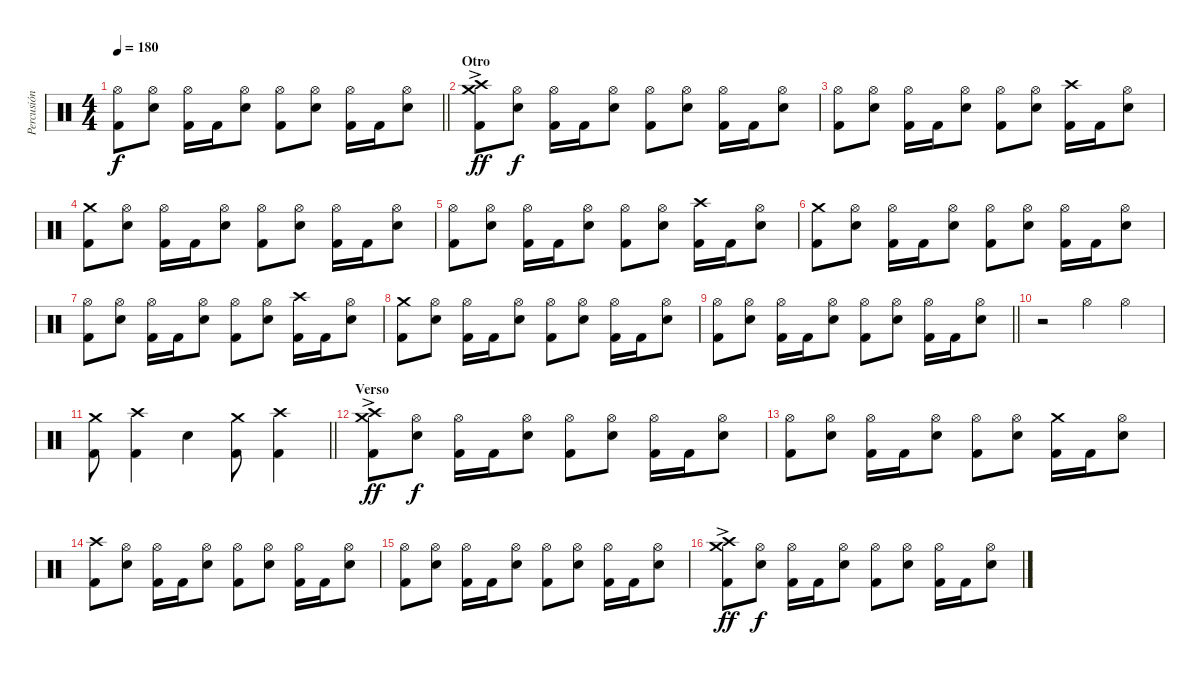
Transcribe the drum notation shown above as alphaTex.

\track ("Percusión" "Percusión") {instrument percussion}
\staff {score}
\articulation defaults
\ts (4 4)
\tempo 180
\clef neutral
\barLineRight lightlight
\ks c
("Hi-Hat (open)" "Kick (hit) 2").8{dy f} ("Hi-Hat (open)" "Snare (hit) 2").8 ("Hi-Hat (open)" "Kick (hit) 2").16 "Kick (hit) 2".16 ("Hi-Hat (open)" "Snare (hit) 2").8 ("Hi-Hat (open)" "Kick (hit) 2").8 ("Hi-Hat (open)" "Snare (hit) 2").8 ("Hi-Hat (open)" "Kick (hit) 2").16 "Kick (hit) 2".16 ("Hi-Hat (open)" "Snare (hit) 2").8 |
\section ("" "Otro")
("Crash medium (hit)"{ac} "Crash high (hit)" "Kick (hit) 2").8{dy ff} ("Hi-Hat (open)" "Snare (hit) 2").8{dy f} ("Hi-Hat (open)" "Kick (hit) 2").16 "Kick (hit) 2".16 ("Hi-Hat (open)" "Snare (hit) 2").8 ("Hi-Hat (open)" "Kick (hit) 2").8 ("Hi-Hat (open)" "Snare (hit) 2").8 ("Hi-Hat (open)" "Kick (hit) 2").16 "Kick (hit) 2".16 ("Hi-Hat (open)" "Snare (hit) 2").8 |
("Hi-Hat (open)" "Kick (hit) 2").8 ("Hi-Hat (open)" "Snare (hit) 2").8 ("Hi-Hat (open)" "Kick (hit) 2").16 "Kick (hit) 2".16 ("Hi-Hat (open)" "Snare (hit) 2").8 ("Hi-Hat (open)" "Kick (hit) 2").8 ("Hi-Hat (open)" "Snare (hit) 2").8 ("Crash high (hit)" "Kick (hit) 2").16 "Kick (hit) 2".16 ("Hi-Hat (open)" "Snare (hit) 2").8 |
("Crash medium (hit)" "Kick (hit) 2").8 ("Hi-Hat (open)" "Snare (hit) 2").8 ("Hi-Hat (open)" "Kick (hit) 2").16 "Kick (hit) 2".16 ("Hi-Hat (open)" "Snare (hit) 2").8 ("Hi-Hat (open)" "Kick (hit) 2").8 ("Hi-Hat (open)" "Snare (hit) 2").8 ("Hi-Hat (open)" "Kick (hit) 2").16 "Kick (hit) 2".16 ("Hi-Hat (open)" "Snare (hit) 2").8 |
("Hi-Hat (open)" "Kick (hit) 2").8 ("Hi-Hat (open)" "Snare (hit) 2").8 ("Hi-Hat (open)" "Kick (hit) 2").16 "Kick (hit) 2".16 ("Hi-Hat (open)" "Snare (hit) 2").8 ("Hi-Hat (open)" "Kick (hit) 2").8 ("Hi-Hat (open)" "Snare (hit) 2").8 ("Crash high (hit)" "Kick (hit) 2").16 "Kick (hit) 2".16 ("Hi-Hat (open)" "Snare (hit) 2").8 |
("Crash medium (hit)" "Kick (hit) 2").8 ("Hi-Hat (open)" "Snare (hit) 2").8 ("Hi-Hat (open)" "Kick (hit) 2").16 "Kick (hit) 2".16 ("Hi-Hat (open)" "Snare (hit) 2").8 ("Hi-Hat (open)" "Kick (hit) 2").8 ("Hi-Hat (open)" "Snare (hit) 2").8 ("Hi-Hat (open)" "Kick (hit) 2").16 "Kick (hit) 2".16 ("Hi-Hat (open)" "Snare (hit) 2").8 |
("Hi-Hat (open)" "Kick (hit) 2").8 ("Hi-Hat (open)" "Snare (hit) 2").8 ("Hi-Hat (open)" "Kick (hit) 2").16 "Kick (hit) 2".16 ("Hi-Hat (open)" "Snare (hit) 2").8 ("Hi-Hat (open)" "Kick (hit) 2").8 ("Hi-Hat (open)" "Snare (hit) 2").8 ("Crash high (hit)" "Kick (hit) 2").16 "Kick (hit) 2".16 ("Hi-Hat (open)" "Snare (hit) 2").8 |
("Crash medium (hit)" "Kick (hit) 2").8 ("Hi-Hat (open)" "Snare (hit) 2").8 ("Hi-Hat (open)" "Kick (hit) 2").16 "Kick (hit) 2".16 ("Hi-Hat (open)" "Snare (hit) 2").8 ("Hi-Hat (open)" "Kick (hit) 2").8 ("Hi-Hat (open)" "Snare (hit) 2").8 ("Hi-Hat (open)" "Kick (hit) 2").16 "Kick (hit) 2".16 ("Hi-Hat (open)" "Snare (hit) 2").8 |
\barLineRight lightlight
("Hi-Hat (open)" "Kick (hit) 2").8 ("Hi-Hat (open)" "Snare (hit) 2").8 ("Hi-Hat (open)" "Kick (hit) 2").16 "Kick (hit) 2".16 ("Hi-Hat (open)" "Snare (hit) 2").8 ("Hi-Hat (open)" "Kick (hit) 2").8 ("Hi-Hat (open)" "Snare (hit) 2").8 ("Hi-Hat (open)" "Kick (hit) 2").16 "Kick (hit) 2".16 ("Hi-Hat (open)" "Snare (hit) 2").8 |
r.2 "Hi-Hat (open)".4 "Hi-Hat (open)".4 |
\barLineRight lightlight
("Crash medium (hit)" "Kick (hit) 2").8 ("Crash high (hit)" "Kick (hit) 2").4 "Snare (hit) 2".4 ("Crash medium (hit)" "Kick (hit) 2").8 ("Crash high (hit)" "Kick (hit) 2").4 |
\section ("" "Verso")
("Crash medium (hit)"{ac} "Crash high (hit)" "Kick (hit) 2").8{dy ff} ("Hi-Hat (open)" "Snare (hit) 2").8{dy f} ("Hi-Hat (open)" "Kick (hit) 2").16 "Kick (hit) 2".16 ("Hi-Hat (open)" "Snare (hit) 2").8 ("Hi-Hat (open)" "Kick (hit) 2").8 ("Hi-Hat (open)" "Snare (hit) 2").8 ("Hi-Hat (open)" "Kick (hit) 2").16 "Kick (hit) 2".16 ("Hi-Hat (open)" "Snare (hit) 2").8 |
("Hi-Hat (open)" "Kick (hit) 2").8 ("Hi-Hat (open)" "Snare (hit) 2").8 ("Hi-Hat (open)" "Kick (hit) 2").16 "Kick (hit) 2".16 ("Hi-Hat (open)" "Snare (hit) 2").8 ("Hi-Hat (open)" "Kick (hit) 2").8 ("Hi-Hat (open)" "Snare (hit) 2").8 ("Crash medium (hit)" "Kick (hit) 2").16 "Kick (hit) 2".16 ("Hi-Hat (open)" "Snare (hit) 2").8 |
("Crash high (hit)" "Kick (hit) 2").8 ("Hi-Hat (open)" "Snare (hit) 2").8 ("Hi-Hat (open)" "Kick (hit) 2").16 "Kick (hit) 2".16 ("Hi-Hat (open)" "Snare (hit) 2").8 ("Hi-Hat (open)" "Kick (hit) 2").8 ("Hi-Hat (open)" "Snare (hit) 2").8 ("Hi-Hat (open)" "Kick (hit) 2").16 "Kick (hit) 2".16 ("Hi-Hat (open)" "Snare (hit) 2").8 |
("Hi-Hat (open)" "Kick (hit) 2").8 ("Hi-Hat (open)" "Snare (hit) 2").8 ("Hi-Hat (open)" "Kick (hit) 2").16 "Kick (hit) 2".16 ("Hi-Hat (open)" "Snare (hit) 2").8 ("Hi-Hat (open)" "Kick (hit) 2").8 ("Hi-Hat (open)" "Snare (hit) 2").8 ("Hi-Hat (open)" "Kick (hit) 2").16 "Kick (hit) 2".16 ("Hi-Hat (open)" "Snare (hit) 2").8 |
("Crash medium (hit)"{ac} "Crash high (hit)" "Kick (hit) 2").8{dy ff} ("Hi-Hat (open)" "Snare (hit) 2").8{dy f} ("Hi-Hat (open)" "Kick (hit) 2").16 "Kick (hit) 2".16 ("Hi-Hat (open)" "Snare (hit) 2").8 ("Hi-Hat (open)" "Kick (hit) 2").8 ("Hi-Hat (open)" "Snare (hit) 2").8 ("Hi-Hat (open)" "Kick (hit) 2").16 "Kick (hit) 2".16 ("Hi-Hat (open)" "Snare (hit) 2").8
